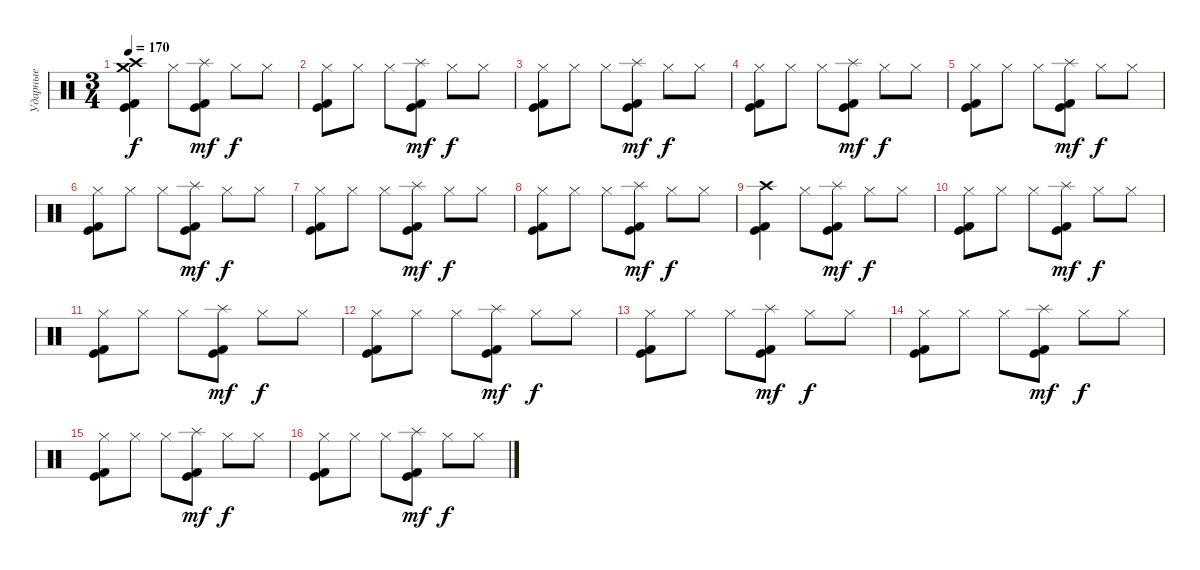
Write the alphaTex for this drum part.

\track ("Ударные" "Ударные") {instrument percussion}
\staff {score}
\articulation defaults
\ts (3 4)
\tempo 170
\clef neutral
\ks c
("Crash high (hit)" "Kick (hit)" "Kick (hit) 2" "Crash medium (hit)").4{dy f} "Hi-Hat (closed)".8 ("Splash (hit)" "Kick (hit)" "Kick (hit) 2").8{dy mf} "Hi-Hat (closed)".8{dy f} "Hi-Hat (closed)".8 |
("Hi-Hat (closed)" "Kick (hit)" "Kick (hit) 2").8 "Hi-Hat (closed)".8 "Hi-Hat (closed)".8 ("Splash (hit)" "Kick (hit)" "Kick (hit) 2").8{dy mf} "Hi-Hat (closed)".8{dy f} "Hi-Hat (closed)".8 |
("Hi-Hat (closed)" "Kick (hit)" "Kick (hit) 2").8 "Hi-Hat (closed)".8 "Hi-Hat (closed)".8 ("Splash (hit)" "Kick (hit)" "Kick (hit) 2").8{dy mf} "Hi-Hat (closed)".8{dy f} "Hi-Hat (closed)".8 |
("Hi-Hat (closed)" "Kick (hit)" "Kick (hit) 2").8 "Hi-Hat (closed)".8 "Hi-Hat (closed)".8 ("Splash (hit)" "Kick (hit)" "Kick (hit) 2").8{dy mf} "Hi-Hat (closed)".8{dy f} "Hi-Hat (closed)".8 |
("Hi-Hat (closed)" "Kick (hit)" "Kick (hit) 2").8 "Hi-Hat (closed)".8 "Hi-Hat (closed)".8 ("Splash (hit)" "Kick (hit)" "Kick (hit) 2").8{dy mf} "Hi-Hat (closed)".8{dy f} "Hi-Hat (closed)".8 |
("Hi-Hat (closed)" "Kick (hit)" "Kick (hit) 2").8 "Hi-Hat (closed)".8 "Hi-Hat (closed)".8 ("Splash (hit)" "Kick (hit)" "Kick (hit) 2").8{dy mf} "Hi-Hat (closed)".8{dy f} "Hi-Hat (closed)".8 |
("Hi-Hat (closed)" "Kick (hit)" "Kick (hit) 2").8 "Hi-Hat (closed)".8 "Hi-Hat (closed)".8 ("Splash (hit)" "Kick (hit)" "Kick (hit) 2").8{dy mf} "Hi-Hat (closed)".8{dy f} "Hi-Hat (closed)".8 |
("Hi-Hat (closed)" "Kick (hit)" "Kick (hit) 2").8 "Hi-Hat (closed)".8 "Hi-Hat (closed)".8 ("Splash (hit)" "Kick (hit)" "Kick (hit) 2").8{dy mf} "Hi-Hat (closed)".8{dy f} "Hi-Hat (closed)".8 |
("Crash high (hit)" "Kick (hit)" "Kick (hit) 2").4 "Hi-Hat (closed)".8 ("Splash (hit)" "Kick (hit)" "Kick (hit) 2").8{dy mf} "Hi-Hat (closed)".8{dy f} "Hi-Hat (closed)".8 |
("Hi-Hat (closed)" "Kick (hit)" "Kick (hit) 2").8 "Hi-Hat (closed)".8 "Hi-Hat (closed)".8 ("Splash (hit)" "Kick (hit)" "Kick (hit) 2").8{dy mf} "Hi-Hat (closed)".8{dy f} "Hi-Hat (closed)".8 |
("Hi-Hat (closed)" "Kick (hit)" "Kick (hit) 2").8 "Hi-Hat (closed)".8 "Hi-Hat (closed)".8 ("Splash (hit)" "Kick (hit)" "Kick (hit) 2").8{dy mf} "Hi-Hat (closed)".8{dy f} "Hi-Hat (closed)".8 |
("Hi-Hat (closed)" "Kick (hit)" "Kick (hit) 2").8 "Hi-Hat (closed)".8 "Hi-Hat (closed)".8 ("Splash (hit)" "Kick (hit)" "Kick (hit) 2").8{dy mf} "Hi-Hat (closed)".8{dy f} "Hi-Hat (closed)".8 |
("Hi-Hat (closed)" "Kick (hit)" "Kick (hit) 2").8 "Hi-Hat (closed)".8 "Hi-Hat (closed)".8 ("Splash (hit)" "Kick (hit)" "Kick (hit) 2").8{dy mf} "Hi-Hat (closed)".8{dy f} "Hi-Hat (closed)".8 |
("Hi-Hat (closed)" "Kick (hit)" "Kick (hit) 2").8 "Hi-Hat (closed)".8 "Hi-Hat (closed)".8 ("Splash (hit)" "Kick (hit)" "Kick (hit) 2").8{dy mf} "Hi-Hat (closed)".8{dy f} "Hi-Hat (closed)".8 |
("Hi-Hat (closed)" "Kick (hit)" "Kick (hit) 2").8 "Hi-Hat (closed)".8 "Hi-Hat (closed)".8 ("Splash (hit)" "Kick (hit)" "Kick (hit) 2").8{dy mf} "Hi-Hat (closed)".8{dy f} "Hi-Hat (closed)".8 |
("Hi-Hat (closed)" "Kick (hit)" "Kick (hit) 2").8 "Hi-Hat (closed)".8 "Hi-Hat (closed)".8 ("Splash (hit)" "Kick (hit)" "Kick (hit) 2").8{dy mf} "Hi-Hat (closed)".8{dy f} "Hi-Hat (closed)".8
